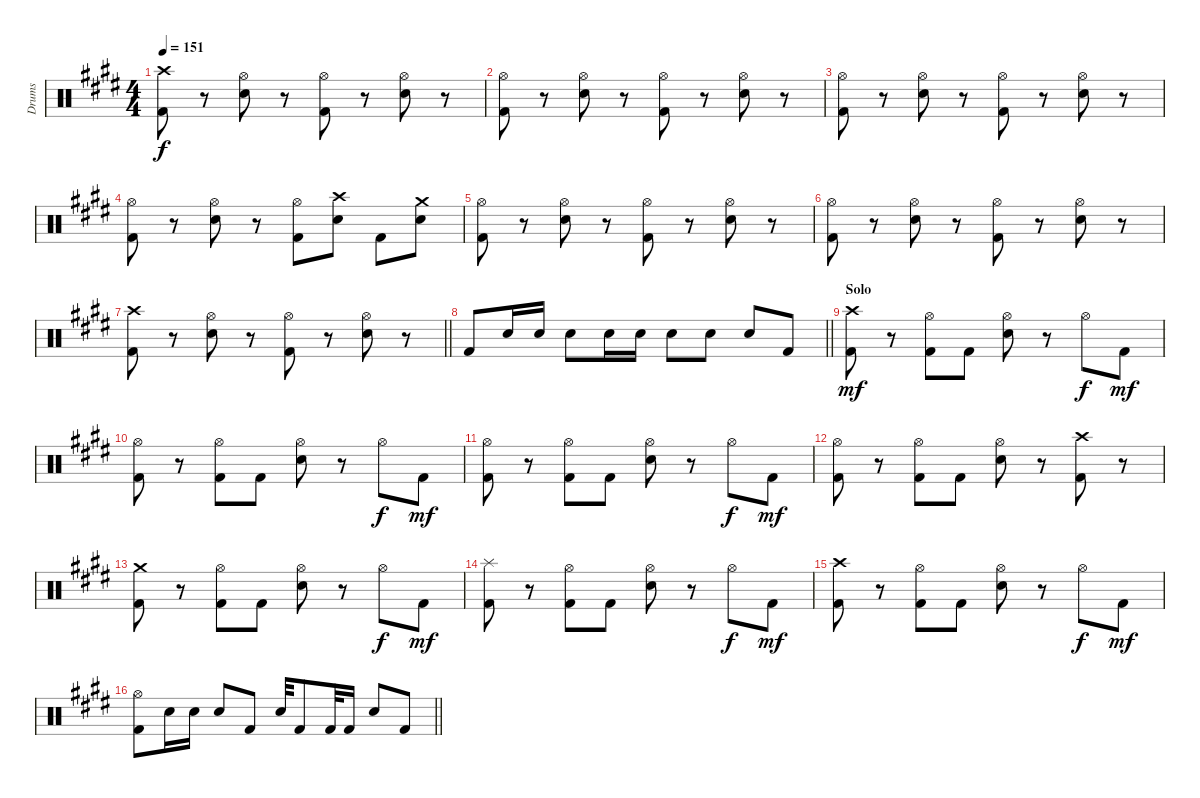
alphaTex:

\track ("Drums" "Drums") {instrument percussion}
\staff {score}
\articulation defaults
\ts (4 4)
\tempo 151
\clef neutral
\ks e
("Crash high (hit)" "Kick (hit) 2").8{dy f} r.8 ("Hi-Hat (open)" "Electric Snare (hit)").8 r.8 ("Hi-Hat (open)" "Kick (hit) 2").8 r.8 ("Hi-Hat (open)" "Electric Snare (hit)").8 r.8 |
("Hi-Hat (open)" "Kick (hit) 2").8 r.8 ("Hi-Hat (open)" "Electric Snare (hit)").8 r.8 ("Hi-Hat (open)" "Kick (hit) 2").8 r.8 ("Hi-Hat (open)" "Electric Snare (hit)").8 r.8 |
("Hi-Hat (open)" "Kick (hit) 2").8 r.8 ("Hi-Hat (open)" "Electric Snare (hit)").8 r.8 ("Hi-Hat (open)" "Kick (hit) 2").8 r.8 ("Hi-Hat (open)" "Electric Snare (hit)").8 r.8 |
("Hi-Hat (open)" "Kick (hit) 2").8 r.8 ("Hi-Hat (open)" "Electric Snare (hit)").8 r.8 ("Hi-Hat (open)" "Kick (hit) 2").8 ("Crash high (hit)" "Electric Snare (hit)").8 "Kick (hit) 2".8 ("Crash medium (hit)" "Electric Snare (hit)").8 |
("Hi-Hat (open)" "Kick (hit) 2").8 r.8 ("Hi-Hat (open)" "Electric Snare (hit)").8 r.8 ("Hi-Hat (open)" "Kick (hit) 2").8 r.8 ("Hi-Hat (open)" "Electric Snare (hit)").8 r.8 |
("Hi-Hat (open)" "Kick (hit) 2").8 r.8 ("Hi-Hat (open)" "Electric Snare (hit)").8 r.8 ("Hi-Hat (open)" "Kick (hit) 2").8 r.8 ("Hi-Hat (open)" "Electric Snare (hit)").8 r.8 |
\barLineRight lightlight
("Crash high (hit)" "Kick (hit) 2").8 r.8 ("Hi-Hat (open)" "Electric Snare (hit)").8 r.8 ("Hi-Hat (open)" "Kick (hit) 2").8 r.8 ("Hi-Hat (open)" "Electric Snare (hit)").8 r.8 |
\barLineRight lightlight "Kick (hit) 2".8 "Electric Snare (hit)".16 "Electric Snare (hit)".16 "Electric Snare (hit)".8 "Electric Snare (hit)".16 "Electric Snare (hit)".16 "Electric Snare (hit)".8 "Electric Snare (hit)".8 "Electric Snare (hit)".8 "Kick (hit) 2".8
|
\section ("" "Solo")
("Crash high (hit)" "Kick (hit) 2").8{dy mf} r.8 ("Hi-Hat (open)" "Kick (hit) 2").8 "Kick (hit) 2".8 ("Hi-Hat (open)" "Electric Snare (hit)").8 r.8 "Hi-Hat (open)".8{dy f} "Kick (hit) 2".8{dy mf} |
("Hi-Hat (open)" "Kick (hit) 2").8 r.8 ("Hi-Hat (open)" "Kick (hit) 2").8 "Kick (hit) 2".8 ("Hi-Hat (open)" "Electric Snare (hit)").8 r.8 "Hi-Hat (open)".8{dy f} "Kick (hit) 2".8{dy mf} |
("Hi-Hat (open)" "Kick (hit) 2").8 r.8 ("Hi-Hat (open)" "Kick (hit) 2").8 "Kick (hit) 2".8 ("Hi-Hat (open)" "Electric Snare (hit)").8 r.8 "Hi-Hat (open)".8{dy f} "Kick (hit) 2".8{dy mf} |
("Hi-Hat (open)" "Kick (hit) 2").8 r.8 ("Hi-Hat (open)" "Kick (hit) 2").8 "Kick (hit) 2".8 ("Hi-Hat (open)" "Electric Snare (hit)").8 r.8 ("Crash high (hit)" "Kick (hit) 2").8 r.8 |
("Crash medium (hit)" "Kick (hit) 2").8 r.8 ("Hi-Hat (open)" "Kick (hit) 2").8 "Kick (hit) 2".8 ("Hi-Hat (open)" "Electric Snare (hit)").8 r.8 "Hi-Hat (open)".8{dy f} "Kick (hit) 2".8{dy mf} |
("Splash (hit)" "Kick (hit) 2").8 r.8 ("Hi-Hat (open)" "Kick (hit) 2").8 "Kick (hit) 2".8 ("Hi-Hat (open)" "Electric Snare (hit)").8 r.8 "Hi-Hat (open)".8{dy f} "Kick (hit) 2".8{dy mf} |
("Crash high (hit)" "Kick (hit) 2").8 r.8 ("Hi-Hat (open)" "Kick (hit) 2").8 "Kick (hit) 2".8 ("Hi-Hat (open)" "Electric Snare (hit)").8 r.8 "Hi-Hat (open)".8{dy f} "Kick (hit) 2".8{dy mf} |
\barLineRight lightlight
("Hi-Hat (open)" "Kick (hit) 2").8 "Electric Snare (hit)".16 "Electric Snare (hit)".16 "Electric Snare (hit)".8 "Kick (hit) 2".8 "Electric Snare (hit)".32 "Kick (hit) 2".8 "Kick (hit) 2".32 "Kick (hit) 2".16 "Electric Snare (hit)".8 "Kick (hit) 2".8
